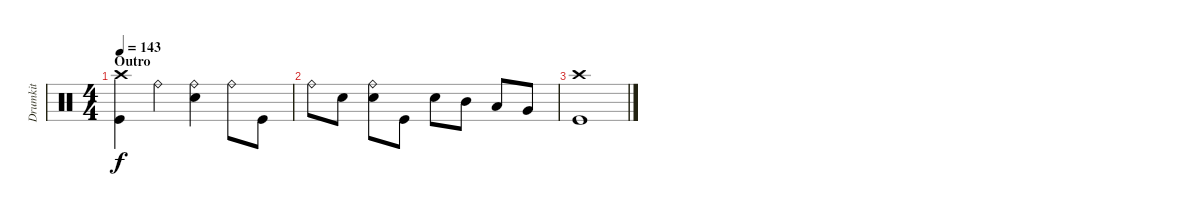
\track ("Drumkit" "Drumkit") {instrument percussion}
\staff {score}
\articulation defaults
\ts (4 4)
\section ("" "Outro")
\tempo 143
\clef neutral
\ks c
("Kick (hit)" "Crash high (hit)").4{dy f} "Ride (bell)".4 ("Snare (hit) 2" "Ride (bell)").4 "Ride (bell)".8 "Kick (hit)".8 |
"Ride (bell)".8 "Snare (hit) 2".8 ("Snare (hit) 2" "Ride (bell)").8 "Kick (hit)".8 "Snare (hit) 2".8 "Mid Tom (hit)".8 "Low Tom (hit)".8 "Very Low Tom (hit)".8 |
("Kick (hit)" "Crash high (hit)").1
